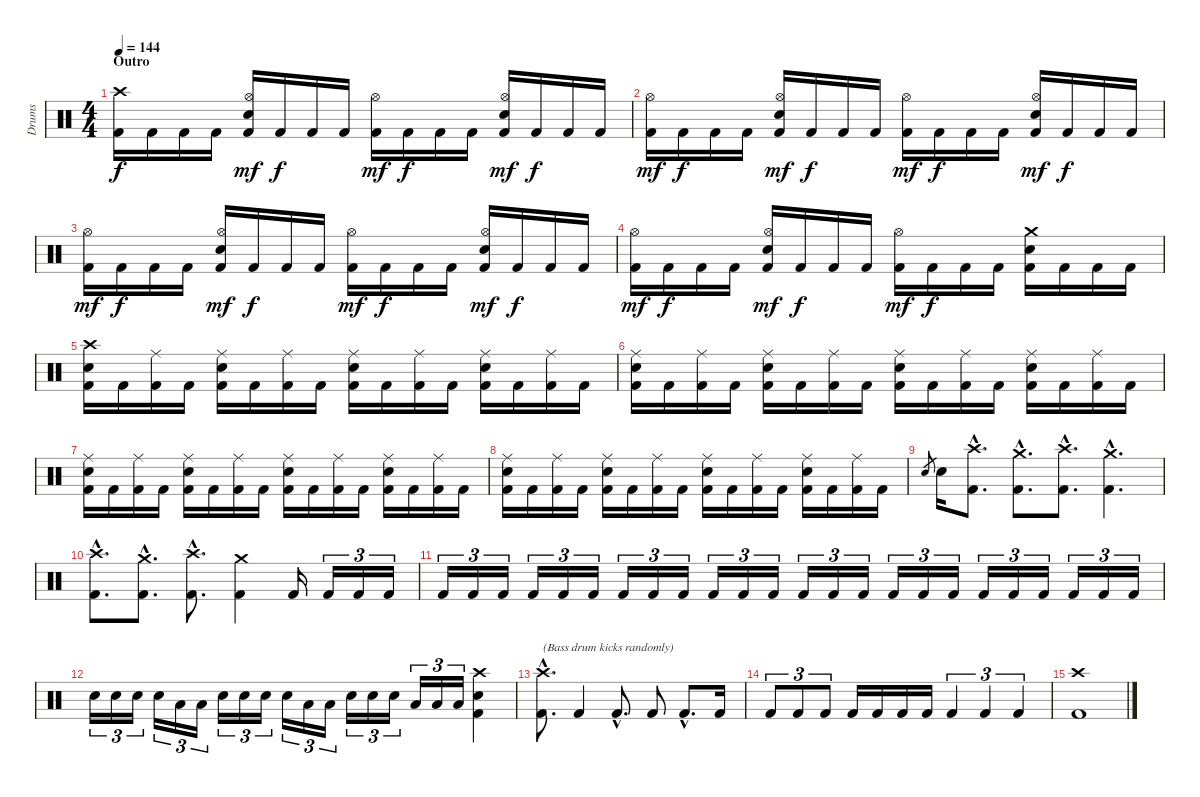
\track ("Drums" "Drums") {instrument percussion}
\staff {score}
\articulation defaults
\ts (4 4)
\section ("" "Outro")
\tempo 144
\clef neutral
\ks c
("Crash high (hit)" "Kick (hit) 2").16{dy f} "Kick (hit) 2".16 "Kick (hit) 2".16 "Kick (hit) 2".16 ("Hi-Hat (open)" "Electric Snare (hit)" "Kick (hit) 2").16{dy mf} "Kick (hit) 2".16{dy f} "Kick (hit) 2".16 "Kick (hit) 2".16 ("Hi-Hat (open)" "Kick (hit) 2").16{dy mf} "Kick (hit) 2".16{dy f} "Kick (hit) 2".16 "Kick (hit) 2".16 ("Hi-Hat (open)" "Electric Snare (hit)" "Kick (hit) 2").16{dy mf} "Kick (hit) 2".16{dy f} "Kick (hit) 2".16 "Kick (hit) 2".16 |
("Hi-Hat (open)" "Kick (hit) 2").16{dy mf} "Kick (hit) 2".16{dy f} "Kick (hit) 2".16 "Kick (hit) 2".16 ("Hi-Hat (open)" "Electric Snare (hit)" "Kick (hit) 2").16{dy mf} "Kick (hit) 2".16{dy f} "Kick (hit) 2".16 "Kick (hit) 2".16 ("Hi-Hat (open)" "Kick (hit) 2").16{dy mf} "Kick (hit) 2".16{dy f} "Kick (hit) 2".16 "Kick (hit) 2".16 ("Hi-Hat (open)" "Electric Snare (hit)" "Kick (hit) 2").16{dy mf} "Kick (hit) 2".16{dy f} "Kick (hit) 2".16 "Kick (hit) 2".16 |
("Hi-Hat (open)" "Kick (hit) 2").16{dy mf} "Kick (hit) 2".16{dy f} "Kick (hit) 2".16 "Kick (hit) 2".16 ("Hi-Hat (open)" "Electric Snare (hit)" "Kick (hit) 2").16{dy mf} "Kick (hit) 2".16{dy f} "Kick (hit) 2".16 "Kick (hit) 2".16 ("Hi-Hat (open)" "Kick (hit) 2").16{dy mf} "Kick (hit) 2".16{dy f} "Kick (hit) 2".16 "Kick (hit) 2".16 ("Hi-Hat (open)" "Electric Snare (hit)" "Kick (hit) 2").16{dy mf} "Kick (hit) 2".16{dy f} "Kick (hit) 2".16 "Kick (hit) 2".16 |
("Hi-Hat (open)" "Kick (hit) 2").16{dy mf} "Kick (hit) 2".16{dy f} "Kick (hit) 2".16 "Kick (hit) 2".16 ("Hi-Hat (open)" "Electric Snare (hit)" "Kick (hit) 2").16{dy mf} "Kick (hit) 2".16{dy f} "Kick (hit) 2".16 "Kick (hit) 2".16 ("Hi-Hat (open)" "Kick (hit) 2").16{dy mf} "Kick (hit) 2".16{dy f} "Kick (hit) 2".16 "Kick (hit) 2".16 ("Crash medium (hit)" "Electric Snare (hit)" "Kick (hit) 2").16 "Kick (hit) 2".16 "Kick (hit) 2".16 "Kick (hit) 2".16 |
("Crash high (hit)" "Electric Snare (hit)" "Kick (hit) 2").16 "Kick (hit) 2".16 ("Ride (middle)" "Kick (hit) 2").16 "Kick (hit) 2".16 ("Ride (middle)" "Electric Snare (hit)" "Kick (hit) 2").16 "Kick (hit) 2".16 ("Ride (middle)" "Kick (hit) 2").16 "Kick (hit) 2".16 ("Ride (middle)" "Electric Snare (hit)" "Kick (hit) 2").16 "Kick (hit) 2".16 ("Ride (middle)" "Kick (hit) 2").16 "Kick (hit) 2".16 ("Ride (middle)" "Electric Snare (hit)" "Kick (hit) 2").16 "Kick (hit) 2".16 ("Ride (middle)" "Kick (hit) 2").16 "Kick (hit) 2".16 |
("Ride (middle)" "Electric Snare (hit)" "Kick (hit) 2").16 "Kick (hit) 2".16 ("Ride (middle)" "Kick (hit) 2").16 "Kick (hit) 2".16 ("Ride (middle)" "Electric Snare (hit)" "Kick (hit) 2").16 "Kick (hit) 2".16 ("Ride (middle)" "Kick (hit) 2").16 "Kick (hit) 2".16 ("Ride (middle)" "Electric Snare (hit)" "Kick (hit) 2").16 "Kick (hit) 2".16 ("Ride (middle)" "Kick (hit) 2").16 "Kick (hit) 2".16 ("Ride (middle)" "Electric Snare (hit)" "Kick (hit) 2").16 "Kick (hit) 2".16 ("Ride (middle)" "Kick (hit) 2").16 "Kick (hit) 2".16 |
("Ride (middle)" "Electric Snare (hit)" "Kick (hit) 2").16 "Kick (hit) 2".16 ("Ride (middle)" "Kick (hit) 2").16 "Kick (hit) 2".16 ("Ride (middle)" "Electric Snare (hit)" "Kick (hit) 2").16 "Kick (hit) 2".16 ("Ride (middle)" "Kick (hit) 2").16 "Kick (hit) 2".16 ("Ride (middle)" "Electric Snare (hit)" "Kick (hit) 2").16 "Kick (hit) 2".16 ("Ride (middle)" "Kick (hit) 2").16 "Kick (hit) 2".16 ("Ride (middle)" "Electric Snare (hit)" "Kick (hit) 2").16 "Kick (hit) 2".16 ("Ride (middle)" "Kick (hit) 2").16 "Kick (hit) 2".16 |
("Ride (middle)" "Electric Snare (hit)" "Kick (hit) 2").16 "Kick (hit) 2".16 ("Ride (middle)" "Kick (hit) 2").16 "Kick (hit) 2".16 ("Ride (middle)" "Electric Snare (hit)" "Kick (hit) 2").16 "Kick (hit) 2".16 ("Ride (middle)" "Kick (hit) 2").16 "Kick (hit) 2".16 ("Ride (middle)" "Electric Snare (hit)" "Kick (hit) 2").16 "Kick (hit) 2".16 ("Ride (middle)" "Kick (hit) 2").16 "Kick (hit) 2".16 ("Ride (middle)" "Electric Snare (hit)" "Kick (hit) 2").16 "Kick (hit) 2".16 ("Ride (middle)" "Kick (hit) 2").16 "Kick (hit) 2".16 |
"Snare (hit) 2".8{gr} "Snare (hit) 2".16 ("Crash high (hit)"{hac} "Kick (hit) 2"{hac}).8{d} ("Crash medium (hit)"{hac} "Kick (hit) 2"{hac}).8{d} ("Crash high (hit)"{hac} "Kick (hit) 2"{hac}).8{d} ("Crash medium (hit)"{hac} "Kick (hit) 2"{hac}).4{d} |
("Crash high (hit)"{hac} "Kick (hit) 2"{hac}).8{d} ("Crash medium (hit)"{hac} "Kick (hit) 2"{hac}).8{d} ("Crash high (hit)"{hac} "Kick (hit) 2"{hac}).8{d} ("Crash medium (hit)" "Kick (hit) 2").4 "Kick (hit) 2".16 "Kick (hit) 2".16{tu (3 2)} "Kick (hit) 2".16{tu (3 2)} "Kick (hit) 2".16{tu (3 2)} |
"Kick (hit) 2".16{tu (3 2)} "Kick (hit) 2".16{tu (3 2)} "Kick (hit) 2".16{tu (3 2)} "Kick (hit) 2".16{tu (3 2)} "Kick (hit) 2".16{tu (3 2)} "Kick (hit) 2".16{tu (3 2)} "Kick (hit) 2".16{tu (3 2)} "Kick (hit) 2".16{tu (3 2)} "Kick (hit) 2".16{tu (3 2)} "Kick (hit) 2".16{tu (3 2)} "Kick (hit) 2".16{tu (3 2)} "Kick (hit) 2".16{tu (3 2)} "Kick (hit) 2".16{tu (3 2)} "Kick (hit) 2".16{tu (3 2)} "Kick (hit) 2".16{tu (3 2)} "Kick (hit) 2".16{tu (3 2)} "Kick (hit) 2".16{tu (3 2)} "Kick (hit) 2".16{tu (3 2)} "Kick (hit) 2".16{tu (3 2)} "Kick (hit) 2".16{tu (3 2)} "Kick (hit) 2".16{tu (3 2)} "Kick (hit) 2".16{tu (3 2)} "Kick (hit) 2".16{tu (3 2)} "Kick (hit) 2".16{tu (3 2)} |
"Electric Snare (hit)".16{tu (3 2)} "Electric Snare (hit)".16{tu (3 2)} "Electric Snare (hit)".16{tu (3 2)} "Electric Snare (hit)".16{tu (3 2)} "Low Tom (hit)".16{tu (3 2)} "Low Tom (hit)".16{tu (3 2)} "Electric Snare (hit)".16{tu (3 2)} "Electric Snare (hit)".16{tu (3 2)} "Electric Snare (hit)".16{tu (3 2)} "Electric Snare (hit)".16{tu (3 2)} "Low Tom (hit)".16{tu (3 2)} "Low Tom (hit)".16{tu (3 2)} "Electric Snare (hit)".16{tu (3 2)} "Electric Snare (hit)".16{tu (3 2)} "Electric Snare (hit)".16{tu (3 2)} "Low Tom (hit)".16{tu (3 2)} "Low Tom (hit)".16{tu (3 2)} "Low Tom (hit)".16{tu (3 2)} ("Crash high (hit)" "Electric Snare (hit)" "Kick (hit) 2").4 |
("Crash high (hit)"{hac} "Kick (hit) 2"{hac}).8{d txt "(Bass drum kicks randomly)"} "Kick (hit) 2".4 "Kick (hit) 2"{hac}.8{d} "Kick (hit) 2".8 "Kick (hit) 2"{hac}.8{d} "Kick (hit) 2".16 |
"Kick (hit) 2".8{tu (3 2)} "Kick (hit) 2".8{tu (3 2)} "Kick (hit) 2".8{tu (3 2)} "Kick (hit) 2".16 "Kick (hit) 2".16 "Kick (hit) 2".16 "Kick (hit) 2".16 "Kick (hit) 2".4{tu (3 2)} "Kick (hit) 2".4{tu (3 2)} "Kick (hit) 2".4{tu (3 2)} |
("Crash high (hit)" "Kick (hit) 2").1
